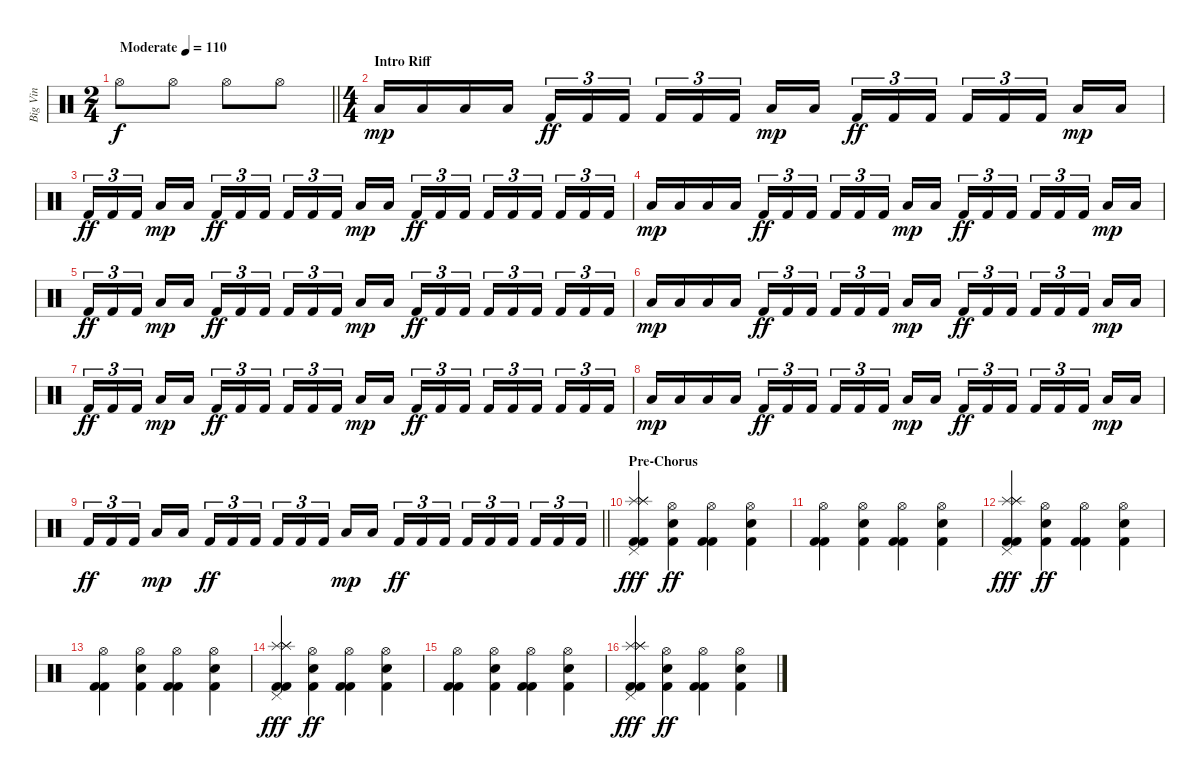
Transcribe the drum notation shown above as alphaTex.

\track ("Big Vin" "Big Vin") {instrument percussion}
\staff {score}
\articulation defaults
\ts (2 4)
\tempo (110 "Moderate")
\clef neutral
\barLineRight lightlight
\ks c "Hi-Hat (open)".8{dy f} "Hi-Hat (open)".8 "Hi-Hat (open)".8 "Hi-Hat (open)".8
|
\ts (4 4)
\section ("" "Intro Riff")
"Low Floor Tom (hit)".16{dy mp} "Low Floor Tom (hit)".16 "Low Floor Tom (hit)".16 "Low Floor Tom (hit)".16 "Kick (hit) 2".16{tu (3 2) dy ff} "Kick (hit) 2".16{tu (3 2)} "Kick (hit) 2".16{tu (3 2) beam splitsecondary} "Kick (hit) 2".16{tu (3 2)} "Kick (hit) 2".16{tu (3 2)} "Kick (hit) 2".16{tu (3 2)} "Low Floor Tom (hit)".16{dy mp} "Low Floor Tom (hit)".16{beam splitsecondary} "Kick (hit) 2".16{tu (3 2) dy ff} "Kick (hit) 2".16{tu (3 2)} "Kick (hit) 2".16{tu (3 2)} "Kick (hit) 2".16{tu (3 2)} "Kick (hit) 2".16{tu (3 2)} "Kick (hit) 2".16{tu (3 2) beam splitsecondary} "Low Floor Tom (hit)".16{dy mp} "Low Floor Tom (hit)".16 |
"Kick (hit) 2".16{tu (3 2) dy ff} "Kick (hit) 2".16{tu (3 2)} "Kick (hit) 2".16{tu (3 2) beam splitsecondary} "Low Floor Tom (hit)".16{dy mp} "Low Floor Tom (hit)".16 "Kick (hit) 2".16{tu (3 2) dy ff} "Kick (hit) 2".16{tu (3 2)} "Kick (hit) 2".16{tu (3 2) beam splitsecondary} "Kick (hit) 2".16{tu (3 2)} "Kick (hit) 2".16{tu (3 2)} "Kick (hit) 2".16{tu (3 2)} "Low Floor Tom (hit)".16{dy mp} "Low Floor Tom (hit)".16{beam splitsecondary} "Kick (hit) 2".16{tu (3 2) dy ff} "Kick (hit) 2".16{tu (3 2)} "Kick (hit) 2".16{tu (3 2)} "Kick (hit) 2".16{tu (3 2)} "Kick (hit) 2".16{tu (3 2)} "Kick (hit) 2".16{tu (3 2) beam splitsecondary} "Kick (hit) 2".16{tu (3 2)} "Kick (hit) 2".16{tu (3 2)} "Kick (hit) 2".16{tu (3 2)} |
"Low Floor Tom (hit)".16{dy mp} "Low Floor Tom (hit)".16 "Low Floor Tom (hit)".16 "Low Floor Tom (hit)".16 "Kick (hit) 2".16{tu (3 2) dy ff} "Kick (hit) 2".16{tu (3 2)} "Kick (hit) 2".16{tu (3 2) beam splitsecondary} "Kick (hit) 2".16{tu (3 2)} "Kick (hit) 2".16{tu (3 2)} "Kick (hit) 2".16{tu (3 2)} "Low Floor Tom (hit)".16{dy mp} "Low Floor Tom (hit)".16{beam splitsecondary} "Kick (hit) 2".16{tu (3 2) dy ff} "Kick (hit) 2".16{tu (3 2)} "Kick (hit) 2".16{tu (3 2)} "Kick (hit) 2".16{tu (3 2)} "Kick (hit) 2".16{tu (3 2)} "Kick (hit) 2".16{tu (3 2) beam splitsecondary} "Low Floor Tom (hit)".16{dy mp} "Low Floor Tom (hit)".16 |
"Kick (hit) 2".16{tu (3 2) dy ff} "Kick (hit) 2".16{tu (3 2)} "Kick (hit) 2".16{tu (3 2) beam splitsecondary} "Low Floor Tom (hit)".16{dy mp} "Low Floor Tom (hit)".16 "Kick (hit) 2".16{tu (3 2) dy ff} "Kick (hit) 2".16{tu (3 2)} "Kick (hit) 2".16{tu (3 2) beam splitsecondary} "Kick (hit) 2".16{tu (3 2)} "Kick (hit) 2".16{tu (3 2)} "Kick (hit) 2".16{tu (3 2)} "Low Floor Tom (hit)".16{dy mp} "Low Floor Tom (hit)".16{beam splitsecondary} "Kick (hit) 2".16{tu (3 2) dy ff} "Kick (hit) 2".16{tu (3 2)} "Kick (hit) 2".16{tu (3 2)} "Kick (hit) 2".16{tu (3 2)} "Kick (hit) 2".16{tu (3 2)} "Kick (hit) 2".16{tu (3 2) beam splitsecondary} "Kick (hit) 2".16{tu (3 2)} "Kick (hit) 2".16{tu (3 2)} "Kick (hit) 2".16{tu (3 2)} |
"Low Floor Tom (hit)".16{dy mp} "Low Floor Tom (hit)".16 "Low Floor Tom (hit)".16 "Low Floor Tom (hit)".16 "Kick (hit) 2".16{tu (3 2) dy ff} "Kick (hit) 2".16{tu (3 2)} "Kick (hit) 2".16{tu (3 2) beam splitsecondary} "Kick (hit) 2".16{tu (3 2)} "Kick (hit) 2".16{tu (3 2)} "Kick (hit) 2".16{tu (3 2)} "Low Floor Tom (hit)".16{dy mp} "Low Floor Tom (hit)".16{beam splitsecondary} "Kick (hit) 2".16{tu (3 2) dy ff} "Kick (hit) 2".16{tu (3 2)} "Kick (hit) 2".16{tu (3 2)} "Kick (hit) 2".16{tu (3 2)} "Kick (hit) 2".16{tu (3 2)} "Kick (hit) 2".16{tu (3 2) beam splitsecondary} "Low Floor Tom (hit)".16{dy mp} "Low Floor Tom (hit)".16 |
"Kick (hit) 2".16{tu (3 2) dy ff} "Kick (hit) 2".16{tu (3 2)} "Kick (hit) 2".16{tu (3 2) beam splitsecondary} "Low Floor Tom (hit)".16{dy mp} "Low Floor Tom (hit)".16 "Kick (hit) 2".16{tu (3 2) dy ff} "Kick (hit) 2".16{tu (3 2)} "Kick (hit) 2".16{tu (3 2) beam splitsecondary} "Kick (hit) 2".16{tu (3 2)} "Kick (hit) 2".16{tu (3 2)} "Kick (hit) 2".16{tu (3 2)} "Low Floor Tom (hit)".16{dy mp} "Low Floor Tom (hit)".16{beam splitsecondary} "Kick (hit) 2".16{tu (3 2) dy ff} "Kick (hit) 2".16{tu (3 2)} "Kick (hit) 2".16{tu (3 2)} "Kick (hit) 2".16{tu (3 2)} "Kick (hit) 2".16{tu (3 2)} "Kick (hit) 2".16{tu (3 2) beam splitsecondary} "Kick (hit) 2".16{tu (3 2)} "Kick (hit) 2".16{tu (3 2)} "Kick (hit) 2".16{tu (3 2)} |
"Low Floor Tom (hit)".16{dy mp} "Low Floor Tom (hit)".16 "Low Floor Tom (hit)".16 "Low Floor Tom (hit)".16 "Kick (hit) 2".16{tu (3 2) dy ff} "Kick (hit) 2".16{tu (3 2)} "Kick (hit) 2".16{tu (3 2) beam splitsecondary} "Kick (hit) 2".16{tu (3 2)} "Kick (hit) 2".16{tu (3 2)} "Kick (hit) 2".16{tu (3 2)} "Low Floor Tom (hit)".16{dy mp} "Low Floor Tom (hit)".16{beam splitsecondary} "Kick (hit) 2".16{tu (3 2) dy ff} "Kick (hit) 2".16{tu (3 2)} "Kick (hit) 2".16{tu (3 2)} "Kick (hit) 2".16{tu (3 2)} "Kick (hit) 2".16{tu (3 2)} "Kick (hit) 2".16{tu (3 2) beam splitsecondary} "Low Floor Tom (hit)".16{dy mp} "Low Floor Tom (hit)".16 |
\barLineRight lightlight "Kick (hit) 2".16{tu (3 2) dy ff} "Kick (hit) 2".16{tu (3 2)} "Kick (hit) 2".16{tu (3 2) beam splitsecondary} "Low Floor Tom (hit)".16{dy mp} "Low Floor Tom (hit)".16 "Kick (hit) 2".16{tu (3 2) dy ff} "Kick (hit) 2".16{tu (3 2)} "Kick (hit) 2".16{tu (3 2) beam splitsecondary} "Kick (hit) 2".16{tu (3 2)} "Kick (hit) 2".16{tu (3 2)} "Kick (hit) 2".16{tu (3 2)} "Low Floor Tom (hit)".16{dy mp} "Low Floor Tom (hit)".16{beam splitsecondary} "Kick (hit) 2".16{tu (3 2) dy ff} "Kick (hit) 2".16{tu (3 2)} "Kick (hit) 2".16{tu (3 2)} "Kick (hit) 2".16{tu (3 2)} "Kick (hit) 2".16{tu (3 2)} "Kick (hit) 2".16{tu (3 2) beam splitsecondary} "Kick (hit) 2".16{tu (3 2)} "Kick (hit) 2".16{tu (3 2)} "Kick (hit) 2".16{tu (3 2)}
|
\section ("" "Pre-Chorus")
("Splash (hit)" "Splash (hit)" "Splash (hit)" "Pedal Hi-Hat (hit)" "Kick (hit) 2" "Kick (hit) 2").4{dy fff} ("Hi-Hat (open)" "Snare (hit) 2" "Kick (hit) 2").4{dy ff} ("Hi-Hat (open)" "Kick (hit) 2" "Kick (hit) 2").4 ("Hi-Hat (open)" "Snare (hit) 2" "Kick (hit) 2").4 |
("Hi-Hat (open)" "Kick (hit) 2" "Kick (hit) 2").4 ("Hi-Hat (open)" "Snare (hit) 2" "Kick (hit) 2").4 ("Hi-Hat (open)" "Kick (hit) 2" "Kick (hit) 2").4 ("Hi-Hat (open)" "Snare (hit) 2" "Kick (hit) 2").4 |
("Splash (hit)" "Splash (hit)" "Splash (hit)" "Pedal Hi-Hat (hit)" "Kick (hit) 2" "Kick (hit) 2").4{dy fff} ("Hi-Hat (open)" "Snare (hit) 2" "Kick (hit) 2").4{dy ff} ("Hi-Hat (open)" "Kick (hit) 2" "Kick (hit) 2").4 ("Hi-Hat (open)" "Snare (hit) 2" "Kick (hit) 2").4 |
("Hi-Hat (open)" "Kick (hit) 2" "Kick (hit) 2").4 ("Hi-Hat (open)" "Snare (hit) 2" "Kick (hit) 2").4 ("Hi-Hat (open)" "Kick (hit) 2" "Kick (hit) 2").4 ("Hi-Hat (open)" "Snare (hit) 2" "Kick (hit) 2").4 |
("Splash (hit)" "Splash (hit)" "Splash (hit)" "Pedal Hi-Hat (hit)" "Kick (hit) 2" "Kick (hit) 2").4{dy fff} ("Hi-Hat (open)" "Snare (hit) 2" "Kick (hit) 2").4{dy ff} ("Hi-Hat (open)" "Kick (hit) 2" "Kick (hit) 2").4 ("Hi-Hat (open)" "Snare (hit) 2" "Kick (hit) 2").4 |
("Hi-Hat (open)" "Kick (hit) 2" "Kick (hit) 2").4 ("Hi-Hat (open)" "Snare (hit) 2" "Kick (hit) 2").4 ("Hi-Hat (open)" "Kick (hit) 2" "Kick (hit) 2").4 ("Hi-Hat (open)" "Snare (hit) 2" "Kick (hit) 2").4 |
("Splash (hit)" "Splash (hit)" "Splash (hit)" "Pedal Hi-Hat (hit)" "Kick (hit) 2" "Kick (hit) 2").4{dy fff} ("Hi-Hat (open)" "Snare (hit) 2" "Kick (hit) 2").4{dy ff} ("Hi-Hat (open)" "Kick (hit) 2" "Kick (hit) 2").4 ("Hi-Hat (open)" "Snare (hit) 2" "Kick (hit) 2").4
